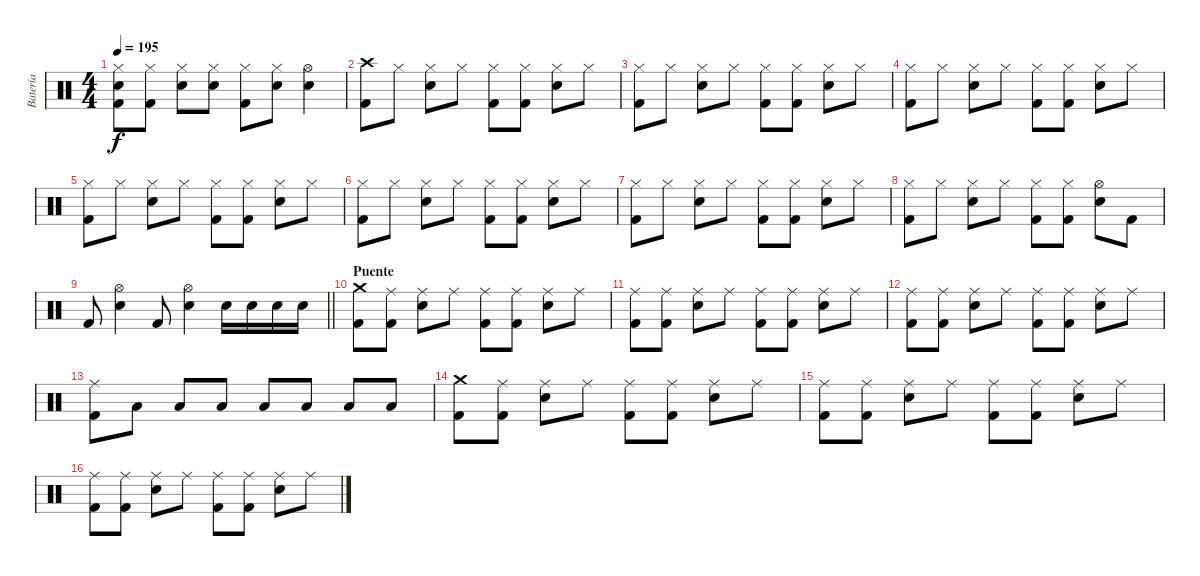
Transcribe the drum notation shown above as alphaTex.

\track ("Batería" "Batería") {instrument percussion}
\staff {score}
\articulation defaults
\ts (4 4)
\tempo 195
\clef neutral
\ks c
("Hi-Hat (closed)" "Snare (hit)"{t} "Kick (hit) 2").8{dy f} ("Hi-Hat (closed)" "Kick (hit) 2").8 ("Hi-Hat (closed)" "Snare (hit) 2").8 ("Hi-Hat (closed)" "Snare (hit) 2").8 ("Hi-Hat (closed)" "Kick (hit) 2").8 ("Hi-Hat (closed)" "Snare (hit) 2").8 ("Hi-Hat (open)" "Snare (hit) 2").4 |
("Crash high (hit)" "Kick (hit) 2").8 "Hi-Hat (closed)".8 ("Hi-Hat (closed)" "Snare (hit) 2").8 "Hi-Hat (closed)".8 ("Hi-Hat (closed)" "Kick (hit) 2").8 ("Hi-Hat (closed)" "Kick (hit) 2").8 ("Hi-Hat (closed)" "Snare (hit) 2").8 "Hi-Hat (closed)".8 |
("Hi-Hat (closed)" "Kick (hit) 2").8 "Hi-Hat (closed)".8 ("Hi-Hat (closed)" "Snare (hit) 2").8 "Hi-Hat (closed)".8 ("Hi-Hat (closed)" "Kick (hit) 2").8 ("Hi-Hat (closed)" "Kick (hit) 2").8 ("Hi-Hat (closed)" "Snare (hit) 2").8 "Hi-Hat (closed)".8 |
("Hi-Hat (closed)" "Kick (hit) 2").8 "Hi-Hat (closed)".8 ("Hi-Hat (closed)" "Snare (hit) 2").8 "Hi-Hat (closed)".8 ("Hi-Hat (closed)" "Kick (hit) 2").8 ("Hi-Hat (closed)" "Kick (hit) 2").8 ("Hi-Hat (closed)" "Snare (hit) 2").8 "Hi-Hat (closed)".8 |
("Hi-Hat (closed)" "Kick (hit) 2").8 "Hi-Hat (closed)".8 ("Hi-Hat (closed)" "Snare (hit) 2").8 "Hi-Hat (closed)".8 ("Hi-Hat (closed)" "Kick (hit) 2").8 ("Hi-Hat (closed)" "Kick (hit) 2").8 ("Hi-Hat (closed)" "Snare (hit) 2").8 "Hi-Hat (closed)".8 |
("Hi-Hat (closed)" "Kick (hit) 2").8 "Hi-Hat (closed)".8 ("Hi-Hat (closed)" "Snare (hit) 2").8 "Hi-Hat (closed)".8 ("Hi-Hat (closed)" "Kick (hit) 2").8 ("Hi-Hat (closed)" "Kick (hit) 2").8 ("Hi-Hat (closed)" "Snare (hit) 2").8 "Hi-Hat (closed)".8 |
("Hi-Hat (closed)" "Kick (hit) 2").8 "Hi-Hat (closed)".8 ("Hi-Hat (closed)" "Snare (hit) 2").8 "Hi-Hat (closed)".8 ("Hi-Hat (closed)" "Kick (hit) 2").8 ("Hi-Hat (closed)" "Kick (hit) 2").8 ("Hi-Hat (closed)" "Snare (hit) 2").8 "Hi-Hat (closed)".8 |
("Hi-Hat (closed)" "Kick (hit) 2").8 "Hi-Hat (closed)".8 ("Hi-Hat (closed)" "Snare (hit) 2").8 "Hi-Hat (closed)".8 ("Hi-Hat (closed)" "Kick (hit) 2").8 ("Hi-Hat (closed)" "Kick (hit) 2").8 ("Hi-Hat (open)" "Snare (hit) 2").8 "Kick (hit) 2".8 |
\barLineRight lightlight "Kick (hit) 2".8
("Hi-Hat (open)" "Snare (hit) 2").4 "Kick (hit) 2".8 ("Hi-Hat (open)" "Snare (hit) 2").4 "Snare (hit) 2".16 "Snare (hit) 2".16 "Snare (hit) 2".16 "Snare (hit) 2".16 |
\section ("" "Puente")
("Crash medium (hit)" "Kick (hit) 2").8 ("Ride (middle)" "Kick (hit) 2").8 ("Ride (middle)" "Snare (hit) 2").8 "Ride (middle)".8 ("Ride (middle)" "Kick (hit) 2").8 ("Ride (middle)" "Kick (hit) 2").8 ("Ride (middle)" "Snare (hit) 2").8 "Ride (middle)".8 |
("Ride (middle)" "Kick (hit) 2").8 ("Ride (middle)" "Kick (hit) 2").8 ("Ride (middle)" "Snare (hit) 2").8 "Ride (middle)".8 ("Ride (middle)" "Kick (hit) 2").8 ("Ride (middle)" "Kick (hit) 2").8 ("Ride (middle)" "Snare (hit) 2").8 "Ride (middle)".8 |
("Ride (middle)" "Kick (hit) 2").8 ("Ride (middle)" "Kick (hit) 2").8 ("Ride (middle)" "Snare (hit) 2").8 "Ride (middle)".8 ("Ride (middle)" "Kick (hit) 2").8 ("Ride (middle)" "Kick (hit) 2").8 ("Ride (middle)" "Snare (hit) 2").8 "Ride (middle)".8 |
("Ride (middle)" "Kick (hit) 2").8 "Low Tom (hit)".8 "Low Floor Tom (hit)".8 "Low Floor Tom (hit)".8 "Low Tom (hit)".8 "Low Floor Tom (hit)".8 "Low Floor Tom (hit)".8 "Low Tom (hit)".8 |
("Crash medium (hit)" "Kick (hit) 2").8 ("Ride (middle)" "Kick (hit) 2").8 ("Ride (middle)" "Snare (hit) 2").8 "Ride (middle)".8 ("Ride (middle)" "Kick (hit) 2").8 ("Ride (middle)" "Kick (hit) 2").8 ("Ride (middle)" "Snare (hit) 2").8 "Ride (middle)".8 |
("Ride (middle)" "Kick (hit) 2").8 ("Ride (middle)" "Kick (hit) 2").8 ("Ride (middle)" "Snare (hit) 2").8 "Ride (middle)".8 ("Ride (middle)" "Kick (hit) 2").8 ("Ride (middle)" "Kick (hit) 2").8 ("Ride (middle)" "Snare (hit) 2").8 "Ride (middle)".8 |
("Ride (middle)" "Kick (hit) 2").8 ("Ride (middle)" "Kick (hit) 2").8 ("Ride (middle)" "Snare (hit) 2").8 "Ride (middle)".8 ("Ride (middle)" "Kick (hit) 2").8 ("Ride (middle)" "Kick (hit) 2").8 ("Ride (middle)" "Snare (hit) 2").8 "Ride (middle)".8
